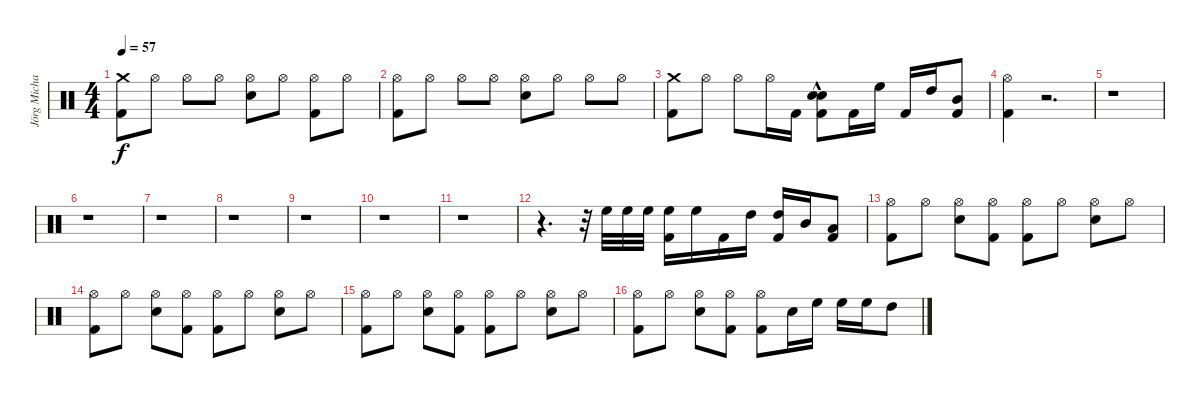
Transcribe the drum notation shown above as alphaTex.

\track ("Jörg Michael" "Jörg Micha") {instrument percussion}
\staff {score}
\articulation defaults
\ts (4 4)
\tempo 57
\clef neutral
\ks c
("Kick (hit) 2" "Crash medium (hit)").8{dy f} "Hi-Hat (open)".8 "Hi-Hat (open)".8 "Hi-Hat (open)".8 ("Snare (hit) 2" "Hi-Hat (open)").8 "Hi-Hat (open)".8 ("Kick (hit) 2" "Hi-Hat (open)").8 "Hi-Hat (open)".8 |
("Hi-Hat (open)" "Kick (hit) 2").8 "Hi-Hat (open)".8 "Hi-Hat (open)".8 "Hi-Hat (open)".8 ("Hi-Hat (open)" "Snare (hit) 2").8 "Hi-Hat (open)".8 "Hi-Hat (open)".8 "Hi-Hat (open)".8 |
("Crash medium (hit)" "Kick (hit) 2").8 "Hi-Hat (open)".8 "Hi-Hat (open)".8 "Hi-Hat (open)".16 "Kick (hit) 2".16 ("Kick (hit) 2" "Snare (hit) 2"{hac} "Snare (hit) 2"{hac}).8 "Kick (hit) 2".16 "High Floor Tom (hit)".16 "Kick (hit) 2".16 "High Tom (hit)".16 ("Mid Tom (hit)" "Kick (hit) 2").8 |
("Hi-Hat (open)" "Kick (hit) 2").4 r.2{d} |
r.1 |
r.1 |
r.1 |
r.1 |
r.1 |
r.1 |
r.1 |
r.4{d} r.32 "High Floor Tom (hit)".32 "High Floor Tom (hit)".32 "High Floor Tom (hit)".32 ("High Floor Tom (hit)" "Kick (hit) 2").16 "High Floor Tom (hit)".16 "Kick (hit) 2".16 "High Tom (hit)".16 ("High Tom (hit)" "Kick (hit) 2").16 "Mid Tom (hit)".16 ("Low Tom (hit)" "Kick (hit) 2").8 |
("Kick (hit) 2" "Hi-Hat (open)").8 "Hi-Hat (open)".8 ("Snare (hit) 2" "Hi-Hat (open)").8 ("Kick (hit) 2" "Hi-Hat (open)").8 ("Kick (hit) 2" "Hi-Hat (open)").8 "Hi-Hat (open)".8 ("Snare (hit) 2" "Hi-Hat (open)").8 "Hi-Hat (open)".8 |
("Kick (hit) 2" "Hi-Hat (open)").8 "Hi-Hat (open)".8 ("Snare (hit) 2" "Hi-Hat (open)").8 ("Kick (hit) 2" "Hi-Hat (open)").8 ("Kick (hit) 2" "Hi-Hat (open)").8 "Hi-Hat (open)".8 ("Snare (hit) 2" "Hi-Hat (open)").8 "Hi-Hat (open)".8 |
("Kick (hit) 2" "Hi-Hat (open)").8 "Hi-Hat (open)".8 ("Snare (hit) 2" "Hi-Hat (open)").8 ("Kick (hit) 2" "Hi-Hat (open)").8 ("Kick (hit) 2" "Hi-Hat (open)").8 "Hi-Hat (open)".8 ("Snare (hit) 2" "Hi-Hat (open)").8 "Hi-Hat (open)".8 |
("Kick (hit) 2" "Hi-Hat (open)").8 "Hi-Hat (open)".8 ("Snare (hit) 2" "Hi-Hat (open)").8 ("Kick (hit) 2" "Hi-Hat (open)").8 ("Hi-Hat (open)" "Kick (hit) 2").8 "Snare (hit) 2".16 "High Floor Tom (hit)".16 "High Floor Tom (hit)".16 "High Floor Tom (hit)".16 "High Tom (hit)".8
